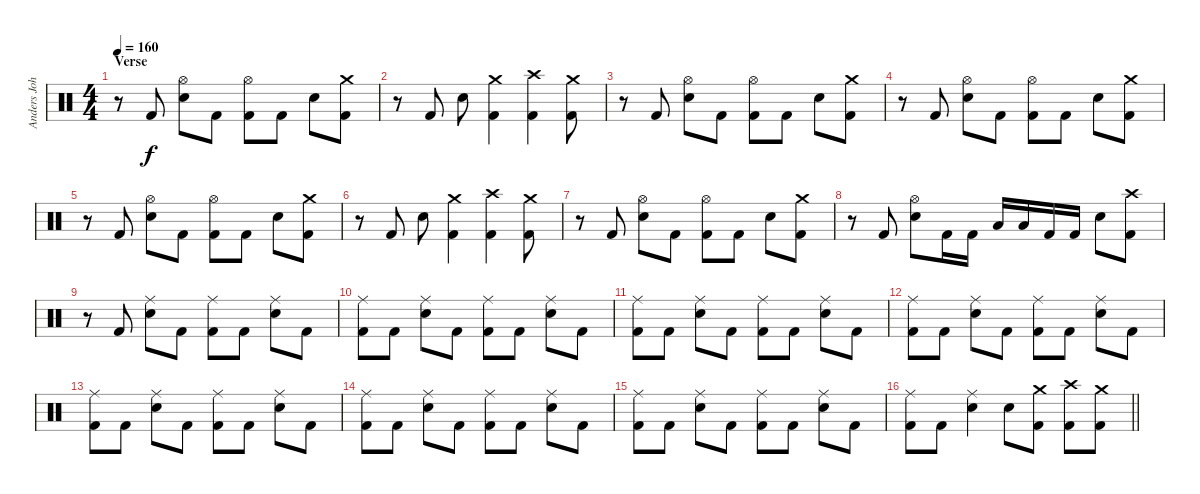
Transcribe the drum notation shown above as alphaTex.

\track ("Anders Johansson" "Anders Joh") {instrument percussion}
\staff {score}
\articulation defaults
\ts (4 4)
\section ("" "Verse")
\tempo 160
\clef neutral
\ks c
r.8{dy f} "Kick (hit) 2".8 ("Hi-Hat (open)" "Snare (hit) 2").8 "Kick (hit) 2".8 ("Hi-Hat (open)" "Kick (hit) 2").8 "Kick (hit) 2".8 "Snare (hit) 2".8 ("Crash medium (hit)" "Kick (hit) 2").8 |
r.8 "Kick (hit) 2".8 "Snare (hit) 2".8 ("Crash medium (hit)" "Kick (hit) 2").4 ("Crash high (hit)" "Kick (hit) 2").4 ("Crash medium (hit)" "Kick (hit) 2").8 |
r.8 "Kick (hit) 2".8 ("Hi-Hat (open)" "Snare (hit) 2").8 "Kick (hit) 2".8 ("Hi-Hat (open)" "Kick (hit) 2").8 "Kick (hit) 2".8 "Snare (hit) 2".8 ("Crash medium (hit)" "Kick (hit) 2").8 |
r.8 "Kick (hit) 2".8 ("Hi-Hat (open)" "Snare (hit) 2").8 "Kick (hit) 2".8 ("Hi-Hat (open)" "Kick (hit) 2").8 "Kick (hit) 2".8 "Snare (hit) 2".8 ("Crash medium (hit)" "Kick (hit) 2").8 |
r.8 "Kick (hit) 2".8 ("Hi-Hat (open)" "Snare (hit) 2").8 "Kick (hit) 2".8 ("Hi-Hat (open)" "Kick (hit) 2").8 "Kick (hit) 2".8 "Snare (hit) 2".8 ("Crash medium (hit)" "Kick (hit) 2").8 |
r.8 "Kick (hit) 2".8 "Snare (hit) 2".8 ("Crash medium (hit)" "Kick (hit) 2").4 ("Crash high (hit)" "Kick (hit) 2").4 ("Crash medium (hit)" "Kick (hit) 2").8 |
r.8 "Kick (hit) 2".8 ("Hi-Hat (open)" "Snare (hit) 2").8 "Kick (hit) 2".8 ("Hi-Hat (open)" "Kick (hit) 2").8 "Kick (hit) 2".8 "Snare (hit) 2".8 ("Crash medium (hit)" "Kick (hit) 2").8 |
r.8 "Kick (hit) 2".8 ("Hi-Hat (open)" "Snare (hit) 2").8 "Kick (hit) 2".16 "Kick (hit) 2".16 "Low Tom (hit)".16 "Low Tom (hit)".16 "Kick (hit) 2".16 "Kick (hit) 2".16 "Snare (hit) 2".8 ("Crash high (hit)" "Kick (hit) 2").8 |
r.8 "Kick (hit) 2".8 ("Ride (middle)" "Snare (hit) 2").8 "Kick (hit) 2".8 ("Ride (middle)" "Kick (hit) 2").8 "Kick (hit) 2".8 ("Ride (middle)" "Snare (hit) 2").8 "Kick (hit) 2".8 |
("Ride (middle)" "Kick (hit) 2").8 "Kick (hit) 2".8 ("Ride (middle)" "Snare (hit) 2").8 "Kick (hit) 2".8 ("Ride (middle)" "Kick (hit) 2").8 "Kick (hit) 2".8 ("Ride (middle)" "Snare (hit) 2").8 "Kick (hit) 2".8 |
("Ride (middle)" "Kick (hit) 2").8 "Kick (hit) 2".8 ("Ride (middle)" "Snare (hit) 2").8 "Kick (hit) 2".8 ("Ride (middle)" "Kick (hit) 2").8 "Kick (hit) 2".8 ("Ride (middle)" "Snare (hit) 2").8 "Kick (hit) 2".8 |
("Ride (middle)" "Kick (hit) 2").8 "Kick (hit) 2".8 ("Ride (middle)" "Snare (hit) 2").8 "Kick (hit) 2".8 ("Ride (middle)" "Kick (hit) 2").8 "Kick (hit) 2".8 ("Ride (middle)" "Snare (hit) 2").8 "Kick (hit) 2".8 |
("Ride (middle)" "Kick (hit) 2").8 "Kick (hit) 2".8 ("Ride (middle)" "Snare (hit) 2").8 "Kick (hit) 2".8 ("Ride (middle)" "Kick (hit) 2").8 "Kick (hit) 2".8 ("Ride (middle)" "Snare (hit) 2").8 "Kick (hit) 2".8 |
("Ride (middle)" "Kick (hit) 2").8 "Kick (hit) 2".8 ("Ride (middle)" "Snare (hit) 2").8 "Kick (hit) 2".8 ("Ride (middle)" "Kick (hit) 2").8 "Kick (hit) 2".8 ("Ride (middle)" "Snare (hit) 2").8 "Kick (hit) 2".8 |
("Ride (middle)" "Kick (hit) 2").8 "Kick (hit) 2".8 ("Ride (middle)" "Snare (hit) 2").8 "Kick (hit) 2".8 ("Ride (middle)" "Kick (hit) 2").8 "Kick (hit) 2".8 ("Ride (middle)" "Snare (hit) 2").8 "Kick (hit) 2".8 |
\barLineRight lightlight
("Ride (middle)" "Kick (hit) 2").8 "Kick (hit) 2".8 ("Ride (middle)" "Snare (hit) 2").4 "Snare (hit) 2".8 ("Crash medium (hit)" "Kick (hit) 2").8 ("Crash high (hit)" "Kick (hit) 2").8 ("Crash medium (hit)" "Kick (hit) 2").8
